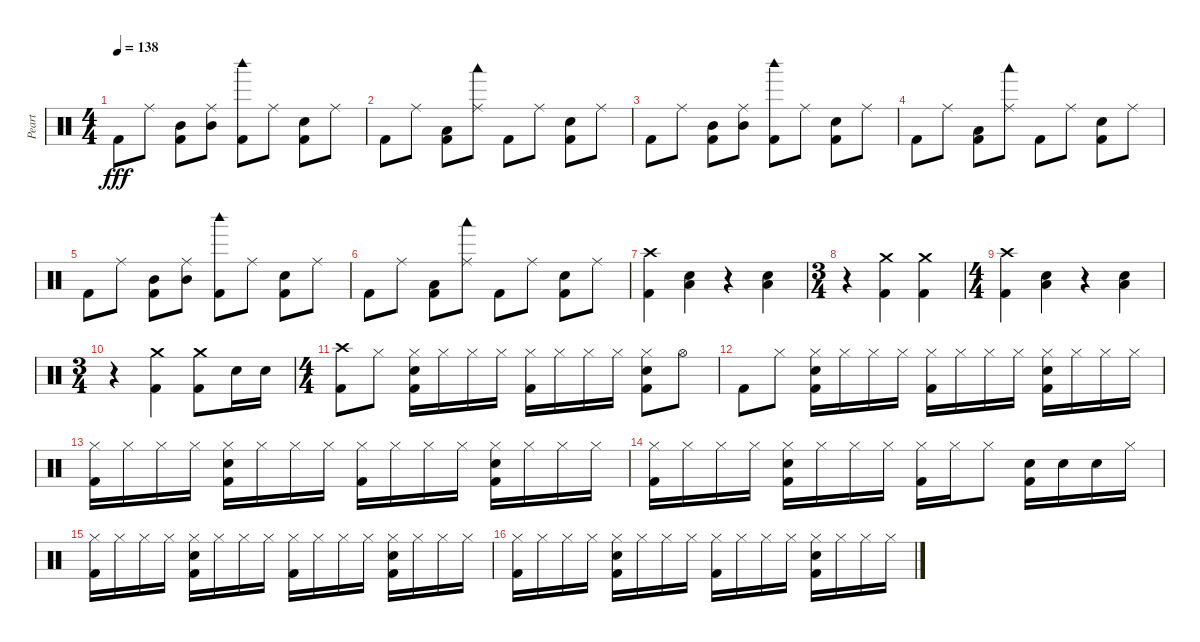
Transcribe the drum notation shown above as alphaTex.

\track ("Peart" "Peart") {instrument percussion}
\staff {score}
\articulation defaults
\ts (4 4)
\tempo 138
\clef neutral
\ks c "Kick (hit) 2".8{dy fff} "Ride (middle)".8
("Mid Tom (hit)" "Kick (hit) 2").8 ("Ride (middle)" "Mid Tom (hit)").8 ("Woodblock high (hit)" "Kick (hit) 2").8 "Ride (middle)".8 ("Electric Snare (hit)" "Kick (hit) 2").8 "Ride (middle)".8 |
"Kick (hit) 2".8 "Ride (middle)".8 ("Low Tom (hit)" "Kick (hit) 2").8 ("Ride (middle)" "Woodblock low (hit)").8 "Kick (hit) 2".8 "Ride (middle)".8 ("Electric Snare (hit)" "Kick (hit) 2").8 "Ride (middle)".8 |
"Kick (hit) 2".8 "Ride (middle)".8 ("Mid Tom (hit)" "Kick (hit) 2").8 ("Ride (middle)" "Mid Tom (hit)").8 ("Woodblock high (hit)" "Kick (hit) 2").8 "Ride (middle)".8 ("Electric Snare (hit)" "Kick (hit) 2").8 "Ride (middle)".8 |
"Kick (hit) 2".8 "Ride (middle)".8 ("Low Tom (hit)" "Kick (hit) 2").8 ("Ride (middle)" "Woodblock low (hit)").8 "Kick (hit) 2".8 "Ride (middle)".8 ("Electric Snare (hit)" "Kick (hit) 2").8 "Ride (middle)".8 |
"Kick (hit) 2".8 "Ride (middle)".8 ("Mid Tom (hit)" "Kick (hit) 2").8 ("Ride (middle)" "Mid Tom (hit)").8 ("Woodblock high (hit)" "Kick (hit) 2").8 "Ride (middle)".8 ("Electric Snare (hit)" "Kick (hit) 2").8 "Ride (middle)".8 |
"Kick (hit) 2".8 "Ride (middle)".8 ("Low Tom (hit)" "Kick (hit) 2").8 ("Ride (middle)" "Woodblock low (hit)").8 "Kick (hit) 2".8 "Ride (middle)".8 ("Electric Snare (hit)" "Kick (hit) 2").8 "Ride (middle)".8 |
("Crash high (hit)" "Kick (hit) 2").4 ("Electric Snare (hit)" "Low Floor Tom (hit)").4 r.4 ("Electric Snare (hit)" "Low Floor Tom (hit)").4 |
\ts (3 4)
r.4 ("Crash medium (hit)" "Kick (hit) 2").4 ("Crash medium (hit)" "Kick (hit) 2").4 |
\ts (4 4)
("Crash high (hit)" "Kick (hit) 2").4 ("Electric Snare (hit)" "Low Floor Tom (hit)").4 r.4 ("Electric Snare (hit)" "Low Floor Tom (hit)").4 |
\ts (3 4)
r.4 ("Crash medium (hit)" "Kick (hit) 2").4 ("Crash medium (hit)" "Kick (hit) 2").8 "Electric Snare (hit)".16 "Electric Snare (hit)".16 |
\ts (4 4)
("Crash high (hit)" "Kick (hit) 2").8 "Hi-Hat (closed)".8 ("Hi-Hat (closed)" "Electric Snare (hit)" "Kick (hit) 2").16 "Hi-Hat (closed)".16 "Hi-Hat (closed)".16 "Hi-Hat (closed)".16 ("Hi-Hat (closed)" "Kick (hit) 2").16 "Hi-Hat (closed)".16 "Hi-Hat (closed)".16 "Hi-Hat (closed)".16 ("Hi-Hat (closed)" "Electric Snare (hit)" "Kick (hit) 2").8 "Hi-Hat (open)".8 |
"Kick (hit) 2".8 "Hi-Hat (closed)".8 ("Hi-Hat (closed)" "Electric Snare (hit)" "Kick (hit) 2").16 "Hi-Hat (closed)".16 "Hi-Hat (closed)".16 "Hi-Hat (closed)".16 ("Hi-Hat (closed)" "Kick (hit) 2").16 "Hi-Hat (closed)".16 "Hi-Hat (closed)".16 "Hi-Hat (closed)".16 ("Hi-Hat (closed)" "Electric Snare (hit)" "Kick (hit) 2").16 "Hi-Hat (closed)".16 "Hi-Hat (closed)".16 "Hi-Hat (closed)".16 |
("Hi-Hat (closed)" "Kick (hit) 2").16 "Hi-Hat (closed)".16 "Hi-Hat (closed)".16 "Hi-Hat (closed)".16 ("Hi-Hat (closed)" "Electric Snare (hit)" "Kick (hit) 2").16 "Hi-Hat (closed)".16 "Hi-Hat (closed)".16 "Hi-Hat (closed)".16 ("Hi-Hat (closed)" "Kick (hit) 2").16 "Hi-Hat (closed)".16 "Hi-Hat (closed)".16 "Hi-Hat (closed)".16 ("Hi-Hat (closed)" "Electric Snare (hit)" "Kick (hit) 2").16 "Hi-Hat (closed)".16 "Hi-Hat (closed)".16 "Hi-Hat (closed)".16 |
("Hi-Hat (closed)" "Kick (hit) 2").16 "Hi-Hat (closed)".16 "Hi-Hat (closed)".16 "Hi-Hat (closed)".16 ("Hi-Hat (closed)" "Electric Snare (hit)" "Kick (hit) 2").16 "Hi-Hat (closed)".16 "Hi-Hat (closed)".16 "Hi-Hat (closed)".16 ("Hi-Hat (closed)" "Kick (hit) 2").16 "Hi-Hat (closed)".16 "Hi-Hat (closed)".8 ("Electric Snare (hit)" "Kick (hit) 2").16 "Electric Snare (hit)".16 "Electric Snare (hit)".16 "Hi-Hat (closed)".16 |
("Hi-Hat (closed)" "Kick (hit) 2").16 "Hi-Hat (closed)".16 "Hi-Hat (closed)".16 "Hi-Hat (closed)".16 ("Hi-Hat (closed)" "Electric Snare (hit)" "Kick (hit) 2").16 "Hi-Hat (closed)".16 "Hi-Hat (closed)".16 "Hi-Hat (closed)".16 ("Hi-Hat (closed)" "Kick (hit) 2").16 "Hi-Hat (closed)".16 "Hi-Hat (closed)".16 "Hi-Hat (closed)".16 ("Hi-Hat (closed)" "Electric Snare (hit)" "Kick (hit) 2").16 "Hi-Hat (closed)".16 "Hi-Hat (closed)".16 "Hi-Hat (closed)".16 |
("Hi-Hat (closed)" "Kick (hit) 2").16 "Hi-Hat (closed)".16 "Hi-Hat (closed)".16 "Hi-Hat (closed)".16 ("Hi-Hat (closed)" "Electric Snare (hit)" "Kick (hit) 2").16 "Hi-Hat (closed)".16 "Hi-Hat (closed)".16 "Hi-Hat (closed)".16 ("Hi-Hat (closed)" "Kick (hit) 2").16 "Hi-Hat (closed)".16 "Hi-Hat (closed)".16 "Hi-Hat (closed)".16 ("Hi-Hat (closed)" "Electric Snare (hit)" "Kick (hit) 2").16 "Hi-Hat (closed)".16 "Hi-Hat (closed)".16 "Hi-Hat (closed)".16
